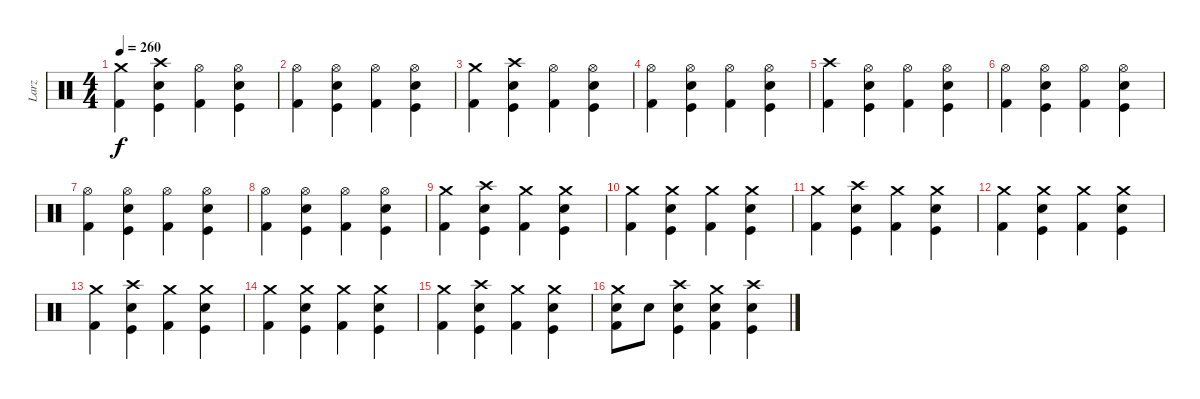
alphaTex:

\track ("Larz" "Larz") {instrument percussion}
\staff {score}
\articulation defaults
\ts (4 4)
\tempo 260
\clef neutral
\ks c
("Crash medium (hit)" "Kick (hit) 2").4{dy f} ("Crash high (hit)" "Kick (hit)" "Electric Snare (hit)").4 ("Hi-Hat (open)" "Kick (hit) 2").4 ("Hi-Hat (open)" "Kick (hit)" "Electric Snare (hit)").4 |
("Hi-Hat (open)" "Kick (hit) 2").4 ("Hi-Hat (open)" "Kick (hit)" "Electric Snare (hit)").4 ("Hi-Hat (open)" "Kick (hit) 2").4 ("Hi-Hat (open)" "Kick (hit)" "Electric Snare (hit)").4 |
("Crash medium (hit)" "Kick (hit) 2").4 ("Crash high (hit)" "Kick (hit)" "Electric Snare (hit)").4 ("Hi-Hat (open)" "Kick (hit) 2").4 ("Hi-Hat (open)" "Kick (hit)" "Electric Snare (hit)").4 |
("Hi-Hat (open)" "Kick (hit) 2").4 ("Hi-Hat (open)" "Kick (hit)" "Electric Snare (hit)").4 ("Hi-Hat (open)" "Kick (hit) 2").4 ("Hi-Hat (open)" "Kick (hit)" "Electric Snare (hit)").4 |
("Crash high (hit)" "Kick (hit) 2").4 ("Hi-Hat (open)" "Kick (hit)" "Electric Snare (hit)").4 ("Hi-Hat (open)" "Kick (hit) 2").4 ("Hi-Hat (open)" "Kick (hit)" "Electric Snare (hit)").4 |
("Hi-Hat (open)" "Kick (hit) 2").4 ("Hi-Hat (open)" "Kick (hit)" "Electric Snare (hit)").4 ("Hi-Hat (open)" "Kick (hit) 2").4 ("Hi-Hat (open)" "Kick (hit)" "Electric Snare (hit)").4 |
("Hi-Hat (open)" "Kick (hit) 2").4 ("Hi-Hat (open)" "Kick (hit)" "Electric Snare (hit)").4 ("Hi-Hat (open)" "Kick (hit) 2").4 ("Hi-Hat (open)" "Kick (hit)" "Electric Snare (hit)").4 |
("Hi-Hat (open)" "Kick (hit) 2").4 ("Hi-Hat (open)" "Kick (hit)" "Electric Snare (hit)").4 ("Hi-Hat (open)" "Kick (hit) 2").4 ("Hi-Hat (open)" "Kick (hit)" "Electric Snare (hit)").4 |
("Crash medium (hit)" "Kick (hit) 2").4 ("Crash high (hit)" "Kick (hit)" "Electric Snare (hit)").4 ("Crash medium (hit)" "Kick (hit) 2").4 ("Crash medium (hit)" "Kick (hit)" "Electric Snare (hit)").4 |
("Crash medium (hit)" "Kick (hit) 2").4 ("Crash medium (hit)" "Kick (hit)" "Electric Snare (hit)").4 ("Crash medium (hit)" "Kick (hit) 2").4 ("Crash medium (hit)" "Kick (hit)" "Electric Snare (hit)").4 |
("Crash medium (hit)" "Kick (hit) 2").4 ("Crash high (hit)" "Kick (hit)" "Electric Snare (hit)").4 ("Crash medium (hit)" "Kick (hit) 2").4 ("Crash medium (hit)" "Kick (hit)" "Electric Snare (hit)").4 |
("Crash medium (hit)" "Kick (hit) 2").4 ("Crash medium (hit)" "Kick (hit)" "Electric Snare (hit)").4 ("Crash medium (hit)" "Kick (hit) 2").4 ("Crash medium (hit)" "Kick (hit)" "Electric Snare (hit)").4 |
("Crash medium (hit)" "Kick (hit) 2").4 ("Crash high (hit)" "Kick (hit)" "Electric Snare (hit)").4 ("Crash medium (hit)" "Kick (hit) 2").4 ("Crash medium (hit)" "Kick (hit)" "Electric Snare (hit)").4 |
("Crash medium (hit)" "Kick (hit) 2").4 ("Crash medium (hit)" "Kick (hit)" "Electric Snare (hit)").4 ("Crash medium (hit)" "Kick (hit) 2").4 ("Crash medium (hit)" "Kick (hit)" "Electric Snare (hit)").4 |
("Crash medium (hit)" "Kick (hit) 2").4 ("Crash high (hit)" "Kick (hit)" "Electric Snare (hit)").4 ("Crash medium (hit)" "Kick (hit) 2").4 ("Crash medium (hit)" "Kick (hit)" "Electric Snare (hit)").4 |
("Crash medium (hit)" "Kick (hit) 2" "Electric Snare (hit)").8 "Electric Snare (hit)".8 ("Crash high (hit)" "Kick (hit)" "Electric Snare (hit)").4 ("Crash medium (hit)" "Kick (hit) 2" "Electric Snare (hit)").4 ("Crash high (hit)" "Kick (hit)" "Electric Snare (hit)").4
